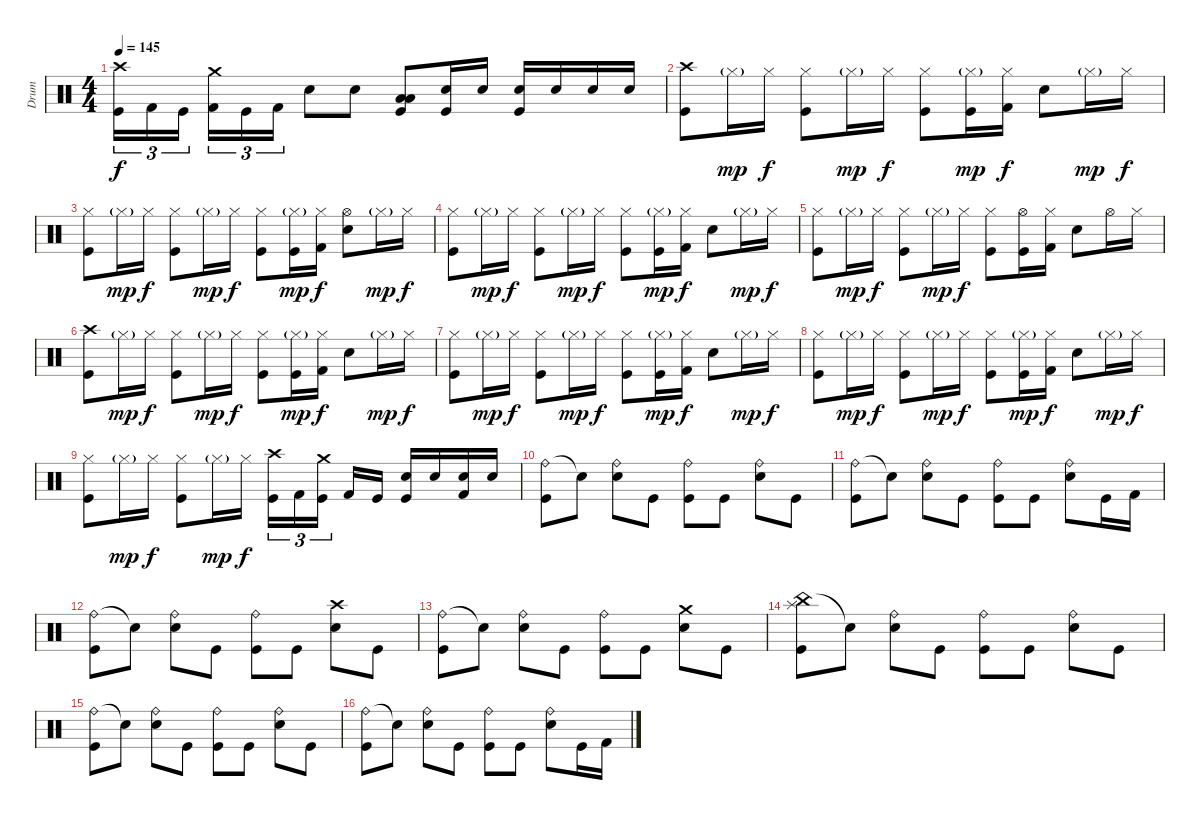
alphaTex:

\track ("Drum" "Drum") {instrument percussion}
\staff {score}
\articulation defaults
\ts (4 4)
\tempo 145
\clef neutral
\ks c
("Crash high (hit)" "Kick (hit)").16{tu (3 2) dy f} "Kick (hit) 2".16{tu (3 2)} "Kick (hit)".16{tu (3 2) beam splitsecondary} ("Crash medium (hit)" "Kick (hit) 2").16{tu (3 2)} "Kick (hit)".16{tu (3 2)} "Kick (hit) 2".16{tu (3 2)} "Electric Snare (hit)".8 "Electric Snare (hit)".8 ("Low Tom (hit)" "Low Floor Tom (hit)" "Kick (hit)").8 ("Electric Snare (hit)" "Kick (hit)").16 "Electric Snare (hit)".16 ("Electric Snare (hit)" "Kick (hit)").16 "Electric Snare (hit)".16 "Electric Snare (hit)".16 "Electric Snare (hit)".16 |
("Crash high (hit)" "Kick (hit)").8 "Hi-Hat (closed)"{g}.16{dy mp} "Hi-Hat (closed)".16{dy f} ("Hi-Hat (closed)" "Kick (hit)").8 "Hi-Hat (closed)"{g}.16{dy mp} "Hi-Hat (closed)".16{dy f} ("Hi-Hat (closed)" "Kick (hit)").8 ("Hi-Hat (closed)"{g} "Kick (hit)").16{dy mp} ("Hi-Hat (closed)" "Kick (hit) 2").16{dy f} "Electric Snare (hit)".8 "Hi-Hat (closed)"{g}.16{dy mp} "Hi-Hat (closed)".16{dy f} |
("Hi-Hat (closed)" "Kick (hit)").8 "Hi-Hat (closed)"{g}.16{dy mp} "Hi-Hat (closed)".16{dy f} ("Hi-Hat (closed)" "Kick (hit)").8 "Hi-Hat (closed)"{g}.16{dy mp} "Hi-Hat (closed)".16{dy f} ("Hi-Hat (closed)" "Kick (hit)").8 ("Hi-Hat (closed)"{g} "Kick (hit)").16{dy mp} ("Hi-Hat (closed)" "Kick (hit) 2").16{dy f} ("Hi-Hat (open)" "Electric Snare (hit)").8 "Hi-Hat (closed)"{g}.16{dy mp} "Hi-Hat (closed)".16{dy f} |
("Hi-Hat (closed)" "Kick (hit)").8 "Hi-Hat (closed)"{g}.16{dy mp} "Hi-Hat (closed)".16{dy f} ("Hi-Hat (closed)" "Kick (hit)").8 "Hi-Hat (closed)"{g}.16{dy mp} "Hi-Hat (closed)".16{dy f} ("Hi-Hat (closed)" "Kick (hit)").8 ("Hi-Hat (closed)"{g} "Kick (hit)").16{dy mp} ("Hi-Hat (closed)" "Kick (hit) 2").16{dy f} "Electric Snare (hit)".8 "Hi-Hat (closed)"{g}.16{dy mp} "Hi-Hat (closed)".16{dy f} |
("Hi-Hat (closed)" "Kick (hit)").8 "Hi-Hat (closed)"{g}.16{dy mp} "Hi-Hat (closed)".16{dy f} ("Hi-Hat (closed)" "Kick (hit)").8 "Hi-Hat (closed)"{g}.16{dy mp} "Hi-Hat (closed)".16{dy f} ("Hi-Hat (closed)" "Kick (hit)").8 ("Hi-Hat (open)" "Kick (hit)").16 ("Hi-Hat (closed)" "Kick (hit) 2").16 "Electric Snare (hit)".8 "Hi-Hat (open)".16 "Hi-Hat (closed)".16 |
("Crash high (hit)" "Kick (hit)").8 "Hi-Hat (closed)"{g}.16{dy mp} "Hi-Hat (closed)".16{dy f} ("Hi-Hat (closed)" "Kick (hit)").8 "Hi-Hat (closed)"{g}.16{dy mp} "Hi-Hat (closed)".16{dy f} ("Hi-Hat (closed)" "Kick (hit)").8 ("Hi-Hat (closed)"{g} "Kick (hit)").16{dy mp} ("Hi-Hat (closed)" "Kick (hit) 2").16{dy f} "Electric Snare (hit)".8 "Hi-Hat (closed)"{g}.16{dy mp} "Hi-Hat (closed)".16{dy f} |
("Hi-Hat (closed)" "Kick (hit)").8 "Hi-Hat (closed)"{g}.16{dy mp} "Hi-Hat (closed)".16{dy f} ("Hi-Hat (closed)" "Kick (hit)").8 "Hi-Hat (closed)"{g}.16{dy mp} "Hi-Hat (closed)".16{dy f} ("Hi-Hat (closed)" "Kick (hit)").8 ("Hi-Hat (closed)"{g} "Kick (hit)").16{dy mp} ("Hi-Hat (closed)" "Kick (hit) 2").16{dy f} "Electric Snare (hit)".8 "Hi-Hat (closed)"{g}.16{dy mp} "Hi-Hat (closed)".16{dy f} |
("Hi-Hat (closed)" "Kick (hit)").8 "Hi-Hat (closed)"{g}.16{dy mp} "Hi-Hat (closed)".16{dy f} ("Hi-Hat (closed)" "Kick (hit)").8 "Hi-Hat (closed)"{g}.16{dy mp} "Hi-Hat (closed)".16{dy f} ("Hi-Hat (closed)" "Kick (hit)").8 ("Hi-Hat (closed)"{g} "Kick (hit)").16{dy mp} ("Hi-Hat (closed)" "Kick (hit) 2").16{dy f} "Electric Snare (hit)".8 "Hi-Hat (closed)"{g}.16{dy mp} "Hi-Hat (closed)".16{dy f} |
("Hi-Hat (closed)" "Kick (hit)").8 "Hi-Hat (closed)"{g}.16{dy mp} "Hi-Hat (closed)".16{dy f} ("Hi-Hat (closed)" "Kick (hit)").8 "Hi-Hat (closed)"{g}.16{dy mp} "Hi-Hat (closed)".16{dy f} ("Crash high (hit)" "Kick (hit)").16{tu (3 2)} "Kick (hit) 2".16{tu (3 2)} ("Crash medium (hit)" "Kick (hit)").16{tu (3 2) beam splitsecondary} "Kick (hit) 2".16 "Kick (hit)".16 ("Electric Snare (hit)" "Kick (hit)").16 "Electric Snare (hit)".16 ("Electric Snare (hit)" "Kick (hit) 2").16 "Electric Snare (hit)".16 |
("Ride (bell)" "Kick (hit)").8 "Snare (hit)"{t}.8 ("Ride (bell)" "Electric Snare (hit)").8 "Kick (hit)".8 ("Ride (bell)" "Kick (hit)").8 "Kick (hit)".8 ("Ride (bell)" "Electric Snare (hit)").8 "Kick (hit)".8 |
("Ride (bell)" "Kick (hit)").8 "Snare (hit)"{t}.8 ("Ride (bell)" "Electric Snare (hit)").8 "Kick (hit)".8 ("Ride (bell)" "Kick (hit)").8 "Kick (hit)".8 ("Ride (bell)" "Electric Snare (hit)").8 "Kick (hit)".16 "Kick (hit) 2".16 |
("Ride (bell)" "Kick (hit)").8 "Snare (hit)"{t}.8 ("Ride (bell)" "Electric Snare (hit)").8 "Kick (hit)".8 ("Ride (bell)" "Kick (hit)").8 "Kick (hit)".8 ("Crash high (hit)" "Electric Snare (hit)").8 "Kick (hit)".8 |
("Ride (bell)" "Kick (hit)").8 "Snare (hit)"{t}.8 ("Ride (bell)" "Electric Snare (hit)").8 "Kick (hit)".8 ("Ride (bell)" "Kick (hit)").8 "Kick (hit)".8 ("Crash medium (hit)" "Electric Snare (hit)").8 "Kick (hit)".8 |
("China (hit)" "Splash (hit)" "Kick (hit)").8 "Snare (hit)"{t}.8 ("Ride (bell)" "Electric Snare (hit)").8 "Kick (hit)".8 ("Ride (bell)" "Kick (hit)").8 "Kick (hit)".8 ("Ride (bell)" "Electric Snare (hit)").8 "Kick (hit)".8 |
("Ride (bell)" "Kick (hit)").8 "Snare (hit)"{t}.8 ("Ride (bell)" "Electric Snare (hit)").8 "Kick (hit)".8 ("Ride (bell)" "Kick (hit)").8 "Kick (hit)".8 ("Ride (bell)" "Electric Snare (hit)").8 "Kick (hit)".8 |
("Ride (bell)" "Kick (hit)").8 "Snare (hit)"{t}.8 ("Ride (bell)" "Electric Snare (hit)").8 "Kick (hit)".8 ("Ride (bell)" "Kick (hit)").8 "Kick (hit)".8 ("Ride (bell)" "Electric Snare (hit)").8 "Kick (hit)".16 "Kick (hit) 2".16
